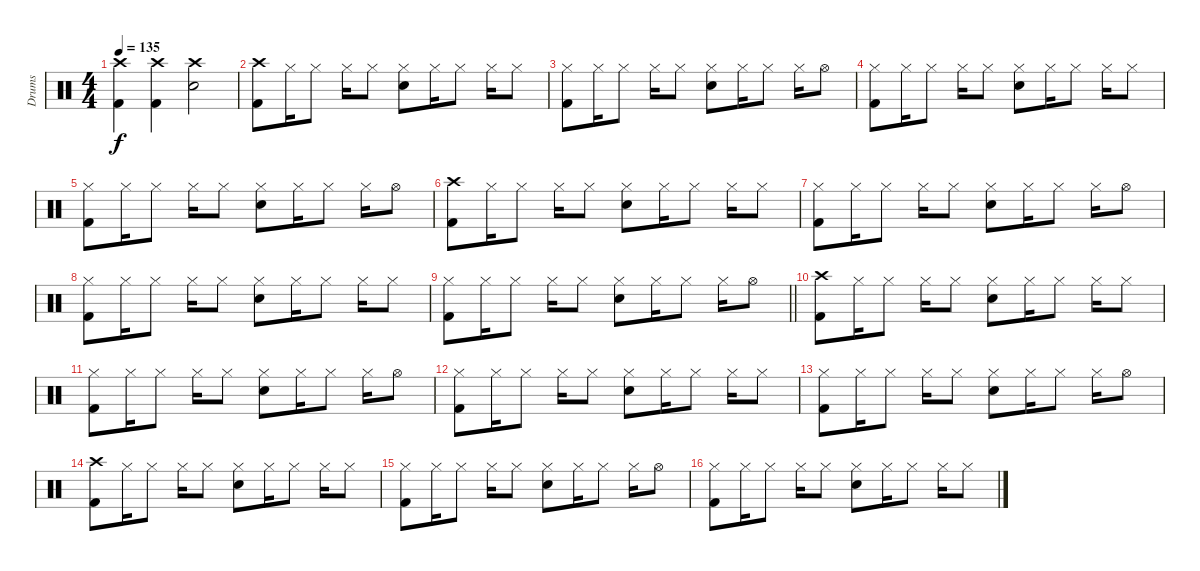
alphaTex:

\track ("Drums" "Drums") {instrument percussion}
\staff {score}
\articulation defaults
\ts (4 4)
\tempo 135
\clef neutral
\ks c
("Crash high (hit)" "Kick (hit) 2").4{dy f} ("Crash high (hit)" "Kick (hit) 2").4 ("Crash high (hit)" "Electric Snare (hit)").2 |
("Crash high (hit)" "Kick (hit) 2").8 "Hi-Hat (closed)".16 "Hi-Hat (closed)".8 "Hi-Hat (closed)".16 "Hi-Hat (closed)".8 ("Hi-Hat (closed)" "Electric Snare (hit)").8 "Hi-Hat (closed)".16 "Hi-Hat (closed)".8 "Hi-Hat (closed)".16 "Hi-Hat (closed)".8 |
("Hi-Hat (closed)" "Kick (hit) 2").8 "Hi-Hat (closed)".16 "Hi-Hat (closed)".8 "Hi-Hat (closed)".16 "Hi-Hat (closed)".8 ("Hi-Hat (closed)" "Electric Snare (hit)").8 "Hi-Hat (closed)".16 "Hi-Hat (closed)".8 "Hi-Hat (closed)".16 "Hi-Hat (open)".8 |
("Hi-Hat (closed)" "Kick (hit) 2").8 "Hi-Hat (closed)".16 "Hi-Hat (closed)".8 "Hi-Hat (closed)".16 "Hi-Hat (closed)".8 ("Hi-Hat (closed)" "Electric Snare (hit)").8 "Hi-Hat (closed)".16 "Hi-Hat (closed)".8 "Hi-Hat (closed)".16 "Hi-Hat (closed)".8 |
("Hi-Hat (closed)" "Kick (hit) 2").8 "Hi-Hat (closed)".16 "Hi-Hat (closed)".8 "Hi-Hat (closed)".16 "Hi-Hat (closed)".8 ("Hi-Hat (closed)" "Electric Snare (hit)").8 "Hi-Hat (closed)".16 "Hi-Hat (closed)".8 "Hi-Hat (closed)".16 "Hi-Hat (open)".8 |
("Crash high (hit)" "Kick (hit) 2").8 "Hi-Hat (closed)".16 "Hi-Hat (closed)".8 "Hi-Hat (closed)".16 "Hi-Hat (closed)".8 ("Hi-Hat (closed)" "Electric Snare (hit)").8 "Hi-Hat (closed)".16 "Hi-Hat (closed)".8 "Hi-Hat (closed)".16 "Hi-Hat (closed)".8 |
("Hi-Hat (closed)" "Kick (hit) 2").8 "Hi-Hat (closed)".16 "Hi-Hat (closed)".8 "Hi-Hat (closed)".16 "Hi-Hat (closed)".8 ("Hi-Hat (closed)" "Electric Snare (hit)").8 "Hi-Hat (closed)".16 "Hi-Hat (closed)".8 "Hi-Hat (closed)".16 "Hi-Hat (open)".8 |
("Hi-Hat (closed)" "Kick (hit) 2").8 "Hi-Hat (closed)".16 "Hi-Hat (closed)".8 "Hi-Hat (closed)".16 "Hi-Hat (closed)".8 ("Hi-Hat (closed)" "Electric Snare (hit)").8 "Hi-Hat (closed)".16 "Hi-Hat (closed)".8 "Hi-Hat (closed)".16 "Hi-Hat (closed)".8 |
\barLineRight lightlight
("Hi-Hat (closed)" "Kick (hit) 2").8 "Hi-Hat (closed)".16 "Hi-Hat (closed)".8 "Hi-Hat (closed)".16 "Hi-Hat (closed)".8 ("Hi-Hat (closed)" "Electric Snare (hit)").8 "Hi-Hat (closed)".16 "Hi-Hat (closed)".8 "Hi-Hat (closed)".16 "Hi-Hat (open)".8 |
("Crash high (hit)" "Kick (hit) 2").8 "Hi-Hat (closed)".16 "Hi-Hat (closed)".8 "Hi-Hat (closed)".16 "Hi-Hat (closed)".8 ("Hi-Hat (closed)" "Electric Snare (hit)").8 "Hi-Hat (closed)".16 "Hi-Hat (closed)".8 "Hi-Hat (closed)".16 "Hi-Hat (closed)".8 |
("Hi-Hat (closed)" "Kick (hit) 2").8 "Hi-Hat (closed)".16 "Hi-Hat (closed)".8 "Hi-Hat (closed)".16 "Hi-Hat (closed)".8 ("Hi-Hat (closed)" "Electric Snare (hit)").8 "Hi-Hat (closed)".16 "Hi-Hat (closed)".8 "Hi-Hat (closed)".16 "Hi-Hat (open)".8 |
("Hi-Hat (closed)" "Kick (hit) 2").8 "Hi-Hat (closed)".16 "Hi-Hat (closed)".8 "Hi-Hat (closed)".16 "Hi-Hat (closed)".8 ("Hi-Hat (closed)" "Electric Snare (hit)").8 "Hi-Hat (closed)".16 "Hi-Hat (closed)".8 "Hi-Hat (closed)".16 "Hi-Hat (closed)".8 |
("Hi-Hat (closed)" "Kick (hit) 2").8 "Hi-Hat (closed)".16 "Hi-Hat (closed)".8 "Hi-Hat (closed)".16 "Hi-Hat (closed)".8 ("Hi-Hat (closed)" "Electric Snare (hit)").8 "Hi-Hat (closed)".16 "Hi-Hat (closed)".8 "Hi-Hat (closed)".16 "Hi-Hat (open)".8 |
("Crash high (hit)" "Kick (hit) 2").8 "Hi-Hat (closed)".16 "Hi-Hat (closed)".8 "Hi-Hat (closed)".16 "Hi-Hat (closed)".8 ("Hi-Hat (closed)" "Electric Snare (hit)").8 "Hi-Hat (closed)".16 "Hi-Hat (closed)".8 "Hi-Hat (closed)".16 "Hi-Hat (closed)".8 |
("Hi-Hat (closed)" "Kick (hit) 2").8 "Hi-Hat (closed)".16 "Hi-Hat (closed)".8 "Hi-Hat (closed)".16 "Hi-Hat (closed)".8 ("Hi-Hat (closed)" "Electric Snare (hit)").8 "Hi-Hat (closed)".16 "Hi-Hat (closed)".8 "Hi-Hat (closed)".16 "Hi-Hat (open)".8 |
("Hi-Hat (closed)" "Kick (hit) 2").8 "Hi-Hat (closed)".16 "Hi-Hat (closed)".8 "Hi-Hat (closed)".16 "Hi-Hat (closed)".8 ("Hi-Hat (closed)" "Electric Snare (hit)").8 "Hi-Hat (closed)".16 "Hi-Hat (closed)".8 "Hi-Hat (closed)".16 "Hi-Hat (closed)".8
